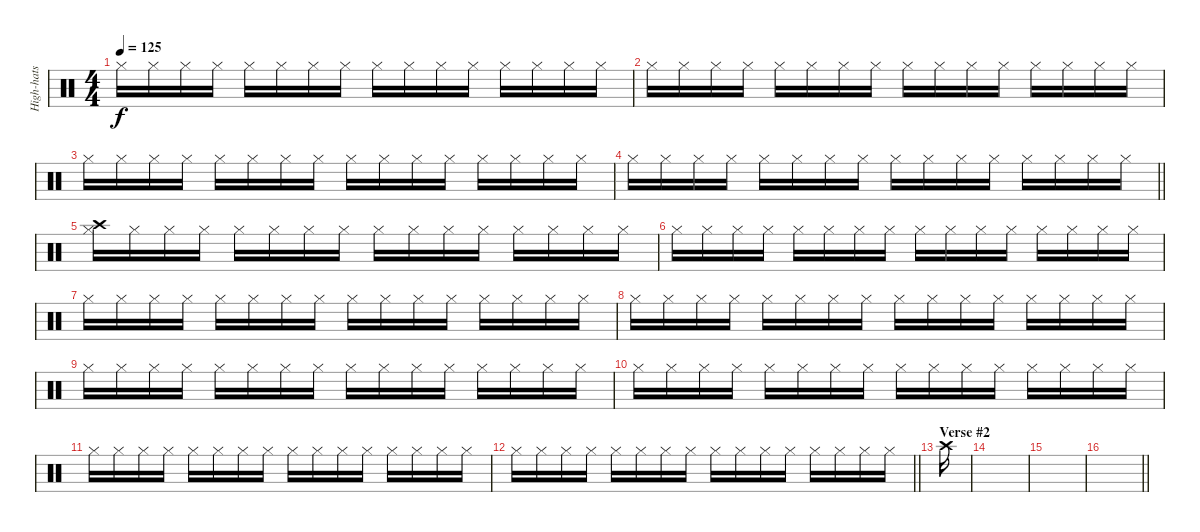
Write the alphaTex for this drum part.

\track ("High-hats" "High-hats") {instrument percussion}
\staff {score}
\articulation defaults
\ts (4 4)
\tempo 125
\clef neutral
\ks c "Hi-Hat (closed)".16{dy f} "Hi-Hat (closed)".16 "Hi-Hat (closed)".16 "Hi-Hat (closed)".16 "Hi-Hat (closed)".16 "Hi-Hat (closed)".16 "Hi-Hat (closed)".16 "Hi-Hat (closed)".16 "Hi-Hat (closed)".16 "Hi-Hat (closed)".16 "Hi-Hat (closed)".16 "Hi-Hat (closed)".16 "Hi-Hat (closed)".16 "Hi-Hat (closed)".16 "Hi-Hat (closed)".16 "Hi-Hat (closed)".16
|
"Hi-Hat (closed)".16 "Hi-Hat (closed)".16 "Hi-Hat (closed)".16 "Hi-Hat (closed)".16 "Hi-Hat (closed)".16 "Hi-Hat (closed)".16 "Hi-Hat (closed)".16 "Hi-Hat (closed)".16 "Hi-Hat (closed)".16 "Hi-Hat (closed)".16 "Hi-Hat (closed)".16 "Hi-Hat (closed)".16 "Hi-Hat (closed)".16 "Hi-Hat (closed)".16 "Hi-Hat (closed)".16 "Hi-Hat (closed)".16 |
"Hi-Hat (closed)".16 "Hi-Hat (closed)".16 "Hi-Hat (closed)".16 "Hi-Hat (closed)".16 "Hi-Hat (closed)".16 "Hi-Hat (closed)".16 "Hi-Hat (closed)".16 "Hi-Hat (closed)".16 "Hi-Hat (closed)".16 "Hi-Hat (closed)".16 "Hi-Hat (closed)".16 "Hi-Hat (closed)".16 "Hi-Hat (closed)".16 "Hi-Hat (closed)".16 "Hi-Hat (closed)".16 "Hi-Hat (closed)".16 |
\barLineRight lightlight "Hi-Hat (closed)".16 "Hi-Hat (closed)".16 "Hi-Hat (closed)".16 "Hi-Hat (closed)".16 "Hi-Hat (closed)".16 "Hi-Hat (closed)".16 "Hi-Hat (closed)".16 "Hi-Hat (closed)".16 "Hi-Hat (closed)".16 "Hi-Hat (closed)".16 "Hi-Hat (closed)".16 "Hi-Hat (closed)".16 "Hi-Hat (closed)".16 "Hi-Hat (closed)".16 "Hi-Hat (closed)".16 "Hi-Hat (closed)".16
|
("Hi-Hat (closed)" "Crash high (hit)").16 "Hi-Hat (closed)".16 "Hi-Hat (closed)".16 "Hi-Hat (closed)".16 "Hi-Hat (closed)".16 "Hi-Hat (closed)".16 "Hi-Hat (closed)".16 "Hi-Hat (closed)".16 "Hi-Hat (closed)".16 "Hi-Hat (closed)".16 "Hi-Hat (closed)".16 "Hi-Hat (closed)".16 "Hi-Hat (closed)".16 "Hi-Hat (closed)".16 "Hi-Hat (closed)".16 "Hi-Hat (closed)".16 |
"Hi-Hat (closed)".16 "Hi-Hat (closed)".16 "Hi-Hat (closed)".16 "Hi-Hat (closed)".16 "Hi-Hat (closed)".16 "Hi-Hat (closed)".16 "Hi-Hat (closed)".16 "Hi-Hat (closed)".16 "Hi-Hat (closed)".16 "Hi-Hat (closed)".16 "Hi-Hat (closed)".16 "Hi-Hat (closed)".16 "Hi-Hat (closed)".16 "Hi-Hat (closed)".16 "Hi-Hat (closed)".16 "Hi-Hat (closed)".16 |
"Hi-Hat (closed)".16 "Hi-Hat (closed)".16 "Hi-Hat (closed)".16 "Hi-Hat (closed)".16 "Hi-Hat (closed)".16 "Hi-Hat (closed)".16 "Hi-Hat (closed)".16 "Hi-Hat (closed)".16 "Hi-Hat (closed)".16 "Hi-Hat (closed)".16 "Hi-Hat (closed)".16 "Hi-Hat (closed)".16 "Hi-Hat (closed)".16 "Hi-Hat (closed)".16 "Hi-Hat (closed)".16 "Hi-Hat (closed)".16 |
"Hi-Hat (closed)".16 "Hi-Hat (closed)".16 "Hi-Hat (closed)".16 "Hi-Hat (closed)".16 "Hi-Hat (closed)".16 "Hi-Hat (closed)".16 "Hi-Hat (closed)".16 "Hi-Hat (closed)".16 "Hi-Hat (closed)".16 "Hi-Hat (closed)".16 "Hi-Hat (closed)".16 "Hi-Hat (closed)".16 "Hi-Hat (closed)".16 "Hi-Hat (closed)".16 "Hi-Hat (closed)".16 "Hi-Hat (closed)".16 |
"Hi-Hat (closed)".16 "Hi-Hat (closed)".16 "Hi-Hat (closed)".16 "Hi-Hat (closed)".16 "Hi-Hat (closed)".16 "Hi-Hat (closed)".16 "Hi-Hat (closed)".16 "Hi-Hat (closed)".16 "Hi-Hat (closed)".16 "Hi-Hat (closed)".16 "Hi-Hat (closed)".16 "Hi-Hat (closed)".16 "Hi-Hat (closed)".16 "Hi-Hat (closed)".16 "Hi-Hat (closed)".16 "Hi-Hat (closed)".16 |
"Hi-Hat (closed)".16 "Hi-Hat (closed)".16 "Hi-Hat (closed)".16 "Hi-Hat (closed)".16 "Hi-Hat (closed)".16 "Hi-Hat (closed)".16 "Hi-Hat (closed)".16 "Hi-Hat (closed)".16 "Hi-Hat (closed)".16 "Hi-Hat (closed)".16 "Hi-Hat (closed)".16 "Hi-Hat (closed)".16 "Hi-Hat (closed)".16 "Hi-Hat (closed)".16 "Hi-Hat (closed)".16 "Hi-Hat (closed)".16 |
"Hi-Hat (closed)".16 "Hi-Hat (closed)".16 "Hi-Hat (closed)".16 "Hi-Hat (closed)".16 "Hi-Hat (closed)".16 "Hi-Hat (closed)".16 "Hi-Hat (closed)".16 "Hi-Hat (closed)".16 "Hi-Hat (closed)".16 "Hi-Hat (closed)".16 "Hi-Hat (closed)".16 "Hi-Hat (closed)".16 "Hi-Hat (closed)".16 "Hi-Hat (closed)".16 "Hi-Hat (closed)".16 "Hi-Hat (closed)".16 |
\barLineRight lightlight "Hi-Hat (closed)".16 "Hi-Hat (closed)".16 "Hi-Hat (closed)".16 "Hi-Hat (closed)".16 "Hi-Hat (closed)".16 "Hi-Hat (closed)".16 "Hi-Hat (closed)".16 "Hi-Hat (closed)".16 "Hi-Hat (closed)".16 "Hi-Hat (closed)".16 "Hi-Hat (closed)".16 "Hi-Hat (closed)".16 "Hi-Hat (closed)".16 "Hi-Hat (closed)".16 "Hi-Hat (closed)".16 "Hi-Hat (closed)".16
|
\section ("" "Verse #2")
"Crash high (hit)".16 |
|
|
\barLineRight lightlight
